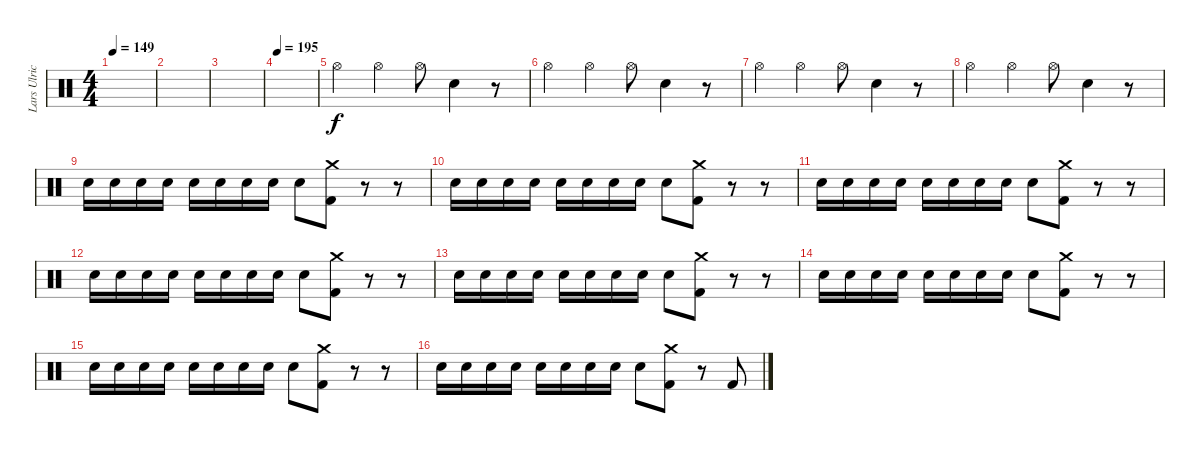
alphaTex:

\track ("Lars Ulrich" "Lars Ulric") {instrument percussion}
\staff {score}
\articulation defaults
\ts (4 4)
\tempo 149
\clef neutral
\ks c
|
|
|
\tempo 195
|
"Hi-Hat (open)".4 "Hi-Hat (open)".4 "Hi-Hat (open)".8 "Electric Snare (hit)".4 r.8 |
"Hi-Hat (open)".4 "Hi-Hat (open)".4 "Hi-Hat (open)".8 "Electric Snare (hit)".4 r.8 |
"Hi-Hat (open)".4 "Hi-Hat (open)".4 "Hi-Hat (open)".8 "Electric Snare (hit)".4 r.8 |
"Hi-Hat (open)".4 "Hi-Hat (open)".4 "Hi-Hat (open)".8 "Electric Snare (hit)".4 r.8 |
"Electric Snare (hit)".16 "Electric Snare (hit)".16 "Electric Snare (hit)".16 "Electric Snare (hit)".16 "Electric Snare (hit)".16 "Electric Snare (hit)".16 "Electric Snare (hit)".16 "Electric Snare (hit)".16 "Electric Snare (hit)".8 ("Crash medium (hit)" "Kick (hit) 2").8 r.8 r.8 |
"Electric Snare (hit)".16 "Electric Snare (hit)".16 "Electric Snare (hit)".16 "Electric Snare (hit)".16 "Electric Snare (hit)".16 "Electric Snare (hit)".16 "Electric Snare (hit)".16 "Electric Snare (hit)".16 "Electric Snare (hit)".8 ("Crash medium (hit)" "Kick (hit) 2").8 r.8 r.8 |
"Electric Snare (hit)".16 "Electric Snare (hit)".16 "Electric Snare (hit)".16 "Electric Snare (hit)".16 "Electric Snare (hit)".16 "Electric Snare (hit)".16 "Electric Snare (hit)".16 "Electric Snare (hit)".16 "Electric Snare (hit)".8 ("Crash medium (hit)" "Kick (hit) 2").8 r.8 r.8 |
"Electric Snare (hit)".16 "Electric Snare (hit)".16 "Electric Snare (hit)".16 "Electric Snare (hit)".16 "Electric Snare (hit)".16 "Electric Snare (hit)".16 "Electric Snare (hit)".16 "Electric Snare (hit)".16 "Electric Snare (hit)".8 ("Crash medium (hit)" "Kick (hit) 2").8 r.8 r.8 |
"Electric Snare (hit)".16 "Electric Snare (hit)".16 "Electric Snare (hit)".16 "Electric Snare (hit)".16 "Electric Snare (hit)".16 "Electric Snare (hit)".16 "Electric Snare (hit)".16 "Electric Snare (hit)".16 "Electric Snare (hit)".8 ("Crash medium (hit)" "Kick (hit) 2").8 r.8 r.8 |
"Electric Snare (hit)".16 "Electric Snare (hit)".16 "Electric Snare (hit)".16 "Electric Snare (hit)".16 "Electric Snare (hit)".16 "Electric Snare (hit)".16 "Electric Snare (hit)".16 "Electric Snare (hit)".16 "Electric Snare (hit)".8 ("Crash medium (hit)" "Kick (hit) 2").8 r.8 r.8 |
"Electric Snare (hit)".16 "Electric Snare (hit)".16 "Electric Snare (hit)".16 "Electric Snare (hit)".16 "Electric Snare (hit)".16 "Electric Snare (hit)".16 "Electric Snare (hit)".16 "Electric Snare (hit)".16 "Electric Snare (hit)".8 ("Crash medium (hit)" "Kick (hit) 2").8 r.8 r.8 |
"Electric Snare (hit)".16 "Electric Snare (hit)".16 "Electric Snare (hit)".16 "Electric Snare (hit)".16 "Electric Snare (hit)".16 "Electric Snare (hit)".16 "Electric Snare (hit)".16 "Electric Snare (hit)".16 "Electric Snare (hit)".8 ("Crash medium (hit)" "Kick (hit) 2").8 r.8 "Kick (hit) 2".8
